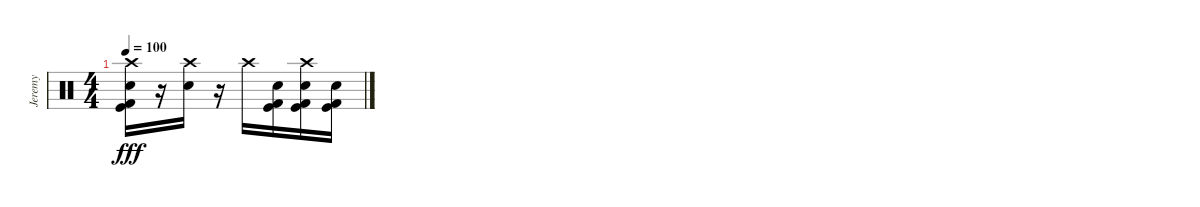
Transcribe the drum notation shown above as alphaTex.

\track ("Jeremy" "Jeremy") {instrument percussion}
\staff {score}
\articulation defaults
\ts (4 4)
\tempo 100
\clef neutral
\ks c
("Crash high (hit)" "Electric Snare (hit)" "Kick (hit)" "Kick (hit) 2").16{dy fff} r.16 ("Crash high (hit)" "Electric Snare (hit)").16 r.16 "Crash high (hit)".16 ("Electric Snare (hit)" "Kick (hit) 2" "Kick (hit)").16 ("Crash high (hit)" "Electric Snare (hit)" "Kick (hit) 2" "Kick (hit)").16 ("Electric Snare (hit)" "Kick (hit)" "Kick (hit) 2").16
